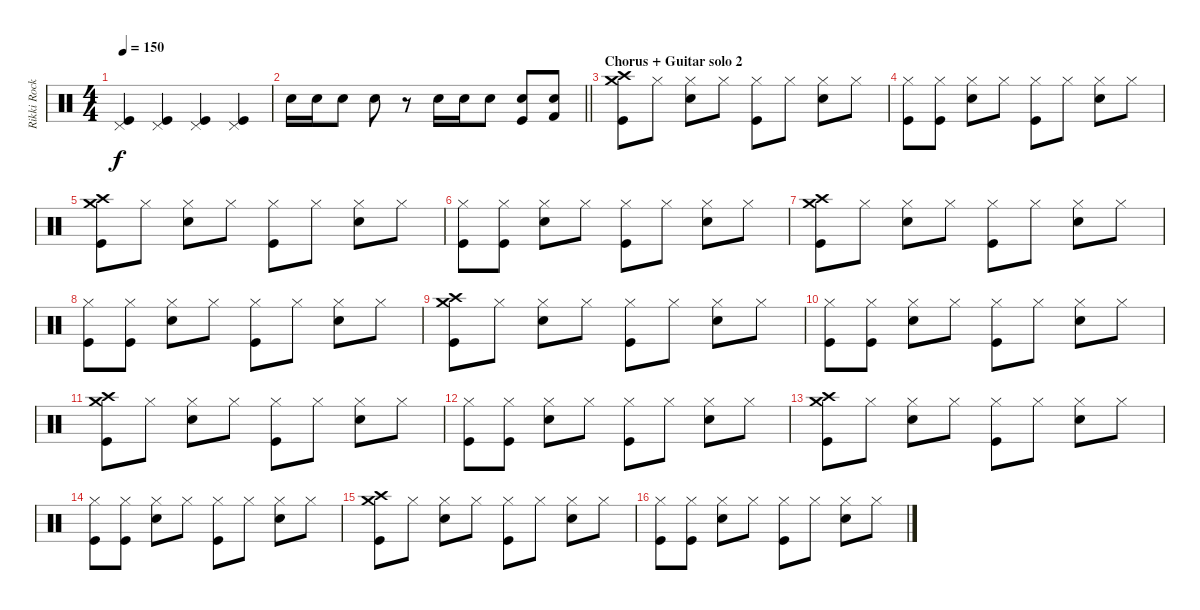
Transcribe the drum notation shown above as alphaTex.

\track ("Rikki Rocket" "Rikki Rock") {instrument percussion}
\staff {score}
\articulation defaults
\ts (4 4)
\tempo 150
\clef neutral
\ks c
("Pedal Hi-Hat (hit)" "Kick (hit)").4{dy f} ("Pedal Hi-Hat (hit)" "Kick (hit)").4 ("Pedal Hi-Hat (hit)" "Kick (hit)").4 ("Pedal Hi-Hat (hit)" "Kick (hit)").4 |
\barLineRight lightlight "Electric Snare (hit)".16 "Electric Snare (hit)".16 "Electric Snare (hit)".8 "Electric Snare (hit)".8
r.8 "Electric Snare (hit)".16 "Electric Snare (hit)".16 "Electric Snare (hit)".8 ("Electric Snare (hit)" "Kick (hit)").8 ("Electric Snare (hit)" "Kick (hit) 2").8 |
\section ("" "Chorus + Guitar solo 2")
("Crash medium (hit)" "Crash high (hit)" "Kick (hit)").8 "Hi-Hat (closed)".8 ("Hi-Hat (closed)" "Electric Snare (hit)").8 "Hi-Hat (closed)".8 ("Hi-Hat (closed)" "Kick (hit)").8 "Hi-Hat (closed)".8 ("Hi-Hat (closed)" "Electric Snare (hit)").8 "Hi-Hat (closed)".8 |
("Hi-Hat (closed)" "Kick (hit)").8 ("Hi-Hat (closed)" "Kick (hit)").8 ("Hi-Hat (closed)" "Electric Snare (hit)").8 "Hi-Hat (closed)".8 ("Hi-Hat (closed)" "Kick (hit)").8 "Hi-Hat (closed)".8 ("Hi-Hat (closed)" "Electric Snare (hit)").8 "Hi-Hat (closed)".8 |
("Crash medium (hit)" "Crash high (hit)" "Kick (hit)").8 "Hi-Hat (closed)".8 ("Hi-Hat (closed)" "Electric Snare (hit)").8 "Hi-Hat (closed)".8 ("Hi-Hat (closed)" "Kick (hit)").8 "Hi-Hat (closed)".8 ("Hi-Hat (closed)" "Electric Snare (hit)").8 "Hi-Hat (closed)".8 |
("Hi-Hat (closed)" "Kick (hit)").8 ("Hi-Hat (closed)" "Kick (hit)").8 ("Hi-Hat (closed)" "Electric Snare (hit)").8 "Hi-Hat (closed)".8 ("Hi-Hat (closed)" "Kick (hit)").8 "Hi-Hat (closed)".8 ("Hi-Hat (closed)" "Electric Snare (hit)").8 "Hi-Hat (closed)".8 |
("Crash medium (hit)" "Crash high (hit)" "Kick (hit)").8 "Hi-Hat (closed)".8 ("Hi-Hat (closed)" "Electric Snare (hit)").8 "Hi-Hat (closed)".8 ("Hi-Hat (closed)" "Kick (hit)").8 "Hi-Hat (closed)".8 ("Hi-Hat (closed)" "Electric Snare (hit)").8 "Hi-Hat (closed)".8 |
("Hi-Hat (closed)" "Kick (hit)").8 ("Hi-Hat (closed)" "Kick (hit)").8 ("Hi-Hat (closed)" "Electric Snare (hit)").8 "Hi-Hat (closed)".8 ("Hi-Hat (closed)" "Kick (hit)").8 "Hi-Hat (closed)".8 ("Hi-Hat (closed)" "Electric Snare (hit)").8 "Hi-Hat (closed)".8 |
("Crash medium (hit)" "Crash high (hit)" "Kick (hit)").8 "Hi-Hat (closed)".8 ("Hi-Hat (closed)" "Electric Snare (hit)").8 "Hi-Hat (closed)".8 ("Hi-Hat (closed)" "Kick (hit)").8 "Hi-Hat (closed)".8 ("Hi-Hat (closed)" "Electric Snare (hit)").8 "Hi-Hat (closed)".8 |
("Hi-Hat (closed)" "Kick (hit)").8 ("Hi-Hat (closed)" "Kick (hit)").8 ("Hi-Hat (closed)" "Electric Snare (hit)").8 "Hi-Hat (closed)".8 ("Hi-Hat (closed)" "Kick (hit)").8 "Hi-Hat (closed)".8 ("Hi-Hat (closed)" "Electric Snare (hit)").8 "Hi-Hat (closed)".8 |
("Crash medium (hit)" "Crash high (hit)" "Kick (hit)").8 "Hi-Hat (closed)".8 ("Hi-Hat (closed)" "Electric Snare (hit)").8 "Hi-Hat (closed)".8 ("Hi-Hat (closed)" "Kick (hit)").8 "Hi-Hat (closed)".8 ("Hi-Hat (closed)" "Electric Snare (hit)").8 "Hi-Hat (closed)".8 |
("Hi-Hat (closed)" "Kick (hit)").8 ("Hi-Hat (closed)" "Kick (hit)").8 ("Hi-Hat (closed)" "Electric Snare (hit)").8 "Hi-Hat (closed)".8 ("Hi-Hat (closed)" "Kick (hit)").8 "Hi-Hat (closed)".8 ("Hi-Hat (closed)" "Electric Snare (hit)").8 "Hi-Hat (closed)".8 |
("Crash medium (hit)" "Crash high (hit)" "Kick (hit)").8 "Hi-Hat (closed)".8 ("Hi-Hat (closed)" "Electric Snare (hit)").8 "Hi-Hat (closed)".8 ("Hi-Hat (closed)" "Kick (hit)").8 "Hi-Hat (closed)".8 ("Hi-Hat (closed)" "Electric Snare (hit)").8 "Hi-Hat (closed)".8 |
("Hi-Hat (closed)" "Kick (hit)").8 ("Hi-Hat (closed)" "Kick (hit)").8 ("Hi-Hat (closed)" "Electric Snare (hit)").8 "Hi-Hat (closed)".8 ("Hi-Hat (closed)" "Kick (hit)").8 "Hi-Hat (closed)".8 ("Hi-Hat (closed)" "Electric Snare (hit)").8 "Hi-Hat (closed)".8 |
("Crash medium (hit)" "Crash high (hit)" "Kick (hit)").8 "Hi-Hat (closed)".8 ("Hi-Hat (closed)" "Electric Snare (hit)").8 "Hi-Hat (closed)".8 ("Hi-Hat (closed)" "Kick (hit)").8 "Hi-Hat (closed)".8 ("Hi-Hat (closed)" "Electric Snare (hit)").8 "Hi-Hat (closed)".8 |
("Hi-Hat (closed)" "Kick (hit)").8 ("Hi-Hat (closed)" "Kick (hit)").8 ("Hi-Hat (closed)" "Electric Snare (hit)").8 "Hi-Hat (closed)".8 ("Hi-Hat (closed)" "Kick (hit)").8 "Hi-Hat (closed)".8 ("Hi-Hat (closed)" "Electric Snare (hit)").8 "Hi-Hat (closed)".8
